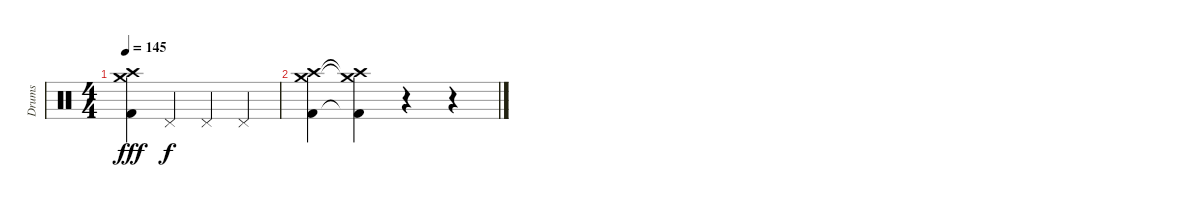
\track ("Drums" "Drums") {instrument percussion}
\staff {score}
\articulation defaults
\ts (4 4)
\tempo 145
\clef neutral
\ks c
("Crash medium (hit)" "Crash high (hit)" "Kick (hit) 2").4{dy fff} "Pedal Hi-Hat (hit)".4{dy f} "Pedal Hi-Hat (hit)".4 "Pedal Hi-Hat (hit)".4 |
("Kick (hit) 2" "Crash high (hit)" "Crash medium (hit)").4 ("Kick (hit) 2"{t} "Crash high (hit)"{t} "Crash medium (hit)"{t}).4{volume 0} r.4 r.4
